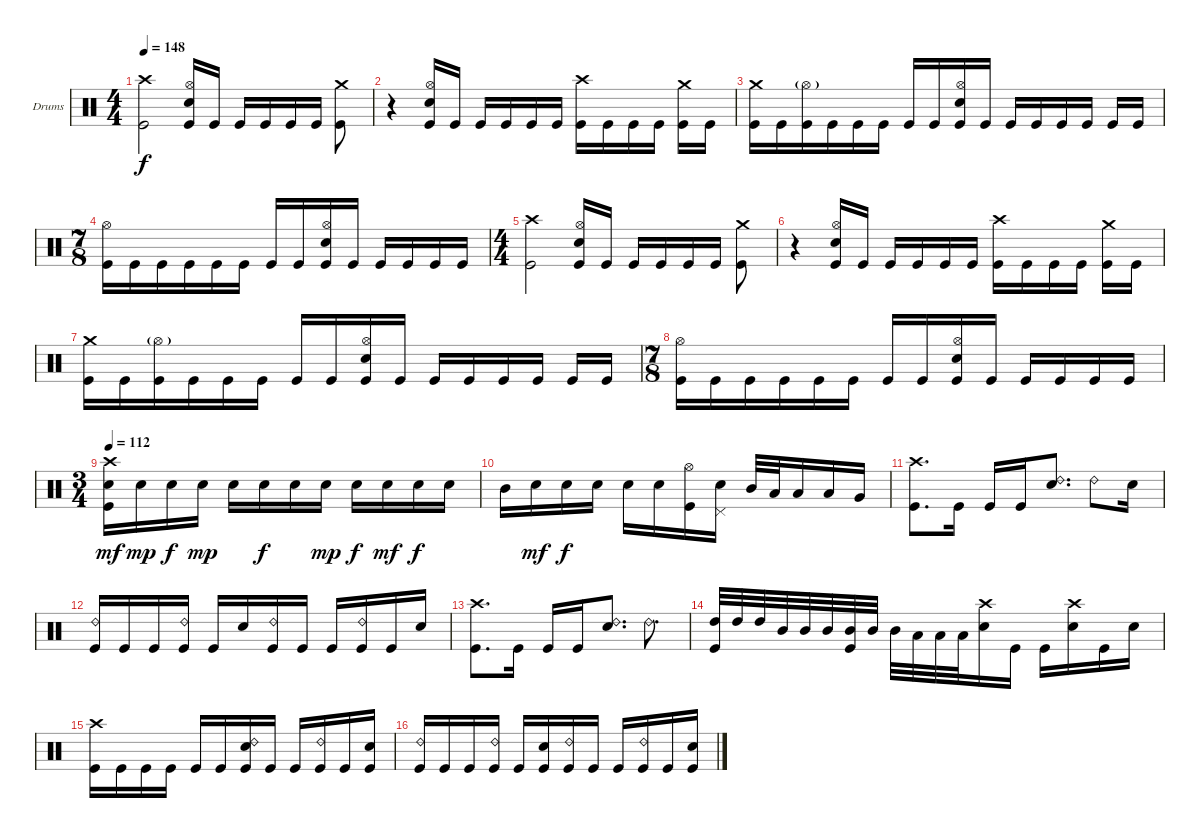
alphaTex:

\bracketExtendMode groupsimilarinstruments
\firstSystemTrackNameOrientation horizontal
\otherSystemsTrackNameOrientation horizontal
\track ("Drumkit" "Drums") {instrument percussion}
\staff {score}
\articulation defaults
\ts (4 4)
\beaming (8 3 2 2 1)
\tempo 148
\clef neutral
\ks c
("Crash high (hit)" "Kick (hit)").2{dy f} ("Hi-Hat (open)" "Snare (hit) 2" "Kick (hit)").16 "Kick (hit)".16 "Kick (hit)".16 "Kick (hit)".16 "Kick (hit)".16 "Kick (hit)".16 ("Crash medium (hit)" "Kick (hit)").8 |
r.4 ("Hi-Hat (open)" "Snare (hit) 2" "Kick (hit)").16 "Kick (hit)".16 "Kick (hit)".16 "Kick (hit)".16 "Kick (hit)".16 "Kick (hit)".16 ("Crash high (hit)" "Kick (hit)").16 "Kick (hit)".16 "Kick (hit)".16 "Kick (hit)".16 ("Crash medium (hit)" "Kick (hit)").16 "Kick (hit)".16 |
("Crash medium (hit)" "Kick (hit)").16 "Kick (hit)".16 ("Hi-Hat (open)"{g} "Kick (hit)").16 "Kick (hit)".16 "Kick (hit)".16 "Kick (hit)".16 "Kick (hit)".16 "Kick (hit)".16 ("Hi-Hat (open)" "Snare (hit) 2" "Kick (hit)").16 "Kick (hit)".16 "Kick (hit)".16 "Kick (hit)".16 "Kick (hit)".16 "Kick (hit)".16 "Kick (hit)".16 "Kick (hit)".16 |
\ts (7 8)
\beaming (8 3 2 2)
("Hi-Hat (open)" "Kick (hit)").16 "Kick (hit)".16 "Kick (hit)".16 "Kick (hit)".16 "Kick (hit)".16 "Kick (hit)".16 "Kick (hit)".16 "Kick (hit)".16 ("Hi-Hat (open)" "Snare (hit) 2" "Kick (hit)").16 "Kick (hit)".16 "Kick (hit)".16 "Kick (hit)".16 "Kick (hit)".16 "Kick (hit)".16 |
\ts (4 4)
\beaming (8 3 2 2 1)
("Crash high (hit)" "Kick (hit)").2 ("Hi-Hat (open)" "Snare (hit) 2" "Kick (hit)").16 "Kick (hit)".16 "Kick (hit)".16 "Kick (hit)".16 "Kick (hit)".16 "Kick (hit)".16 ("Crash medium (hit)" "Kick (hit)").8 |
r.4 ("Hi-Hat (open)" "Snare (hit) 2" "Kick (hit)").16 "Kick (hit)".16 "Kick (hit)".16 "Kick (hit)".16 "Kick (hit)".16 "Kick (hit)".16 ("Crash high (hit)" "Kick (hit)").16 "Kick (hit)".16 "Kick (hit)".16 "Kick (hit)".16 ("Crash medium (hit)" "Kick (hit)").16 "Kick (hit)".16 |
("Crash medium (hit)" "Kick (hit)").16 "Kick (hit)".16 ("Hi-Hat (open)"{g} "Kick (hit)").16 "Kick (hit)".16 "Kick (hit)".16 "Kick (hit)".16 "Kick (hit)".16 "Kick (hit)".16 ("Hi-Hat (open)" "Snare (hit) 2" "Kick (hit)").16 "Kick (hit)".16 "Kick (hit)".16 "Kick (hit)".16 "Kick (hit)".16 "Kick (hit)".16 "Kick (hit)".16 "Kick (hit)".16 |
\ts (7 8)
\beaming (8 3 2 2)
("Hi-Hat (open)" "Kick (hit)").16 "Kick (hit)".16 "Kick (hit)".16 "Kick (hit)".16 "Kick (hit)".16 "Kick (hit)".16 "Kick (hit)".16 "Kick (hit)".16 ("Hi-Hat (open)" "Snare (hit) 2" "Kick (hit)").16 "Kick (hit)".16 "Kick (hit)".16 "Kick (hit)".16 "Kick (hit)".16 "Kick (hit)".16 |
\ts (3 4)
\beaming (8 2 2 2)
\tempo 112
("Crash high (hit)" "Snare (hit) 2" "Kick (hit)").16{dy mf} "Snare (hit) 2".16{dy mp} "Snare (hit) 2".16{dy f} "Snare (hit) 2".16{dy mp} "Snare (hit) 2".16 "Snare (hit) 2".16{dy f} "Snare (hit) 2".16 "Snare (hit) 2".16{dy mp} "Snare (hit) 2".16{dy f} "Snare (hit) 2".16{dy mf} "Snare (hit) 2".16{dy f} "Snare (hit) 2".16 |
"Mid Tom (hit)".16 "Snare (hit) 2".16{dy mf} "Snare (hit) 2".16{dy f} "Snare (hit) 2".16 "Snare (hit) 2".16 "Snare (hit) 2".16 ("Hi-Hat (open)" "Kick (hit)").16 ("Pedal Hi-Hat (hit)" "Snare (hit) 2").16 "Mid Tom (hit)".32 "Low Tom (hit)".32 "Low Tom (hit)".16 "Low Tom (hit)".16 "Very Low Tom (hit)".16 |
("Crash high (hit)" "Kick (hit)").8{d} "Kick (hit)".16 "Kick (hit)".16 "Kick (hit)".16 ("Ride (bell) 2" "Snare (hit) 2").8{d} "Ride (bell) 2".8 "Snare (hit) 2".16 |
("Ride (bell) 2" "Kick (hit)").16 "Kick (hit)".16 "Kick (hit)".16 ("Ride (bell) 2" "Kick (hit)").16 "Kick (hit)".16 "Snare (hit) 2".16 ("Ride (bell) 2" "Kick (hit)").16 "Kick (hit)".16 "Kick (hit)".16 ("Ride (bell) 2" "Kick (hit)").16 "Kick (hit)".16 "Snare (hit) 2".16 |
("Crash high (hit)" "Kick (hit)").8{d} "Kick (hit)".16 "Kick (hit)".16 "Kick (hit)".16 ("Ride (bell) 2" "Snare (hit) 2").8{d} "Ride (bell) 2".8{d} |
("High Tom (hit)" "Kick (hit)").32 "High Tom (hit)".32 "High Tom (hit)".32 "Mid Tom (hit)".32 "Mid Tom (hit)".32 "Mid Tom (hit)".32 ("Mid Tom (hit)" "Kick (hit)").32 "Mid Tom (hit)".32 "Mid Tom (hit)".32 "Low Tom (hit)".32 "Low Tom (hit)".32 "Low Tom (hit)".32 ("Crash high (hit)" "Snare (hit) 2").16 "Kick (hit)".16 "Kick (hit)".16 ("Crash high (hit)" "Snare (hit) 2").16 "Kick (hit)".16 "Snare (hit) 2".16 |
("Crash high (hit)" "Kick (hit)").16 "Kick (hit)".16 "Kick (hit)".16 "Kick (hit)".16 "Kick (hit)".16 "Kick (hit)".16 ("Ride (bell) 2" "Snare (hit) 2" "Kick (hit)").16 "Kick (hit)".16 "Kick (hit)".16 ("Ride (bell) 2" "Kick (hit)").16 "Kick (hit)".16 ("Snare (hit) 2" "Kick (hit)").16 |
("Ride (bell) 2" "Kick (hit)").16 "Kick (hit)".16 "Kick (hit)".16 ("Ride (bell) 2" "Kick (hit)").16 "Kick (hit)".16 ("Snare (hit) 2" "Kick (hit)").16 ("Ride (bell) 2" "Kick (hit)").16 "Kick (hit)".16 "Kick (hit)".16 ("Ride (bell) 2" "Kick (hit)").16 "Kick (hit)".16 ("Snare (hit) 2" "Kick (hit)").16
